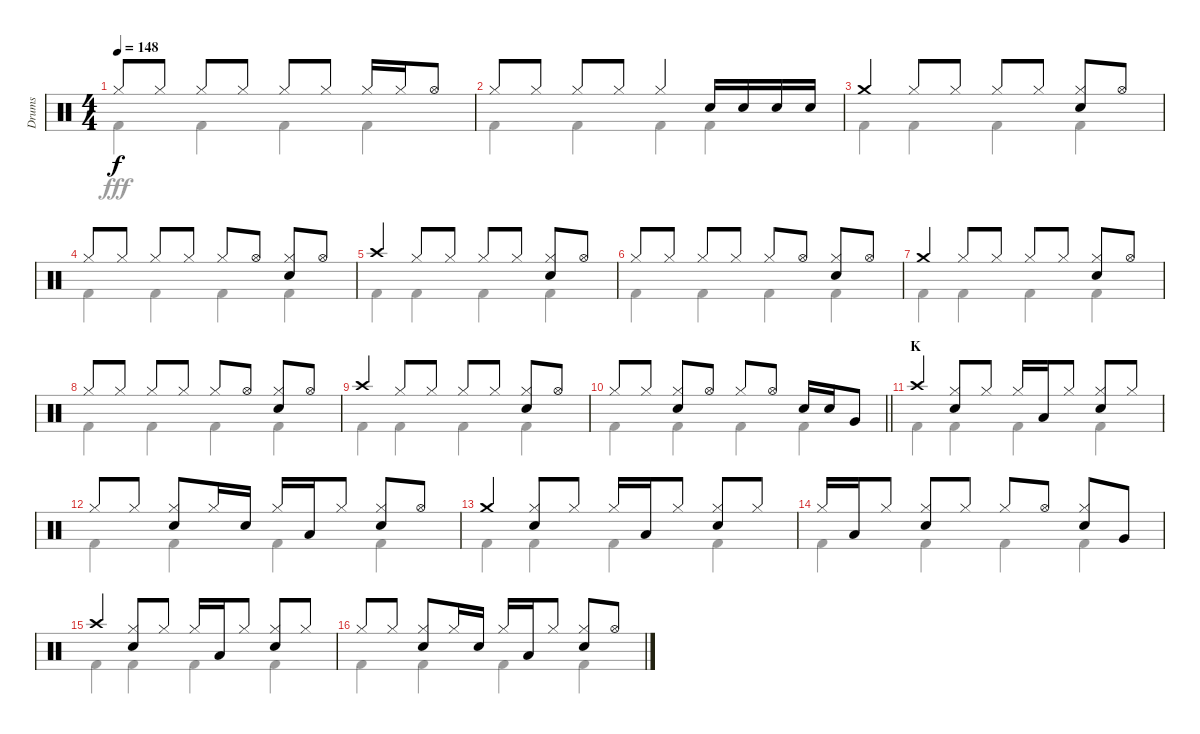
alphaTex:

\track ("Drums" "Drums") {instrument percussion}
\staff {score}
\articulation defaults
\voice
\ts (4 4)
\tempo 148
\clef neutral
\ks c "Hi-Hat (closed)".8{dy f} "Hi-Hat (closed)".8 "Hi-Hat (closed)".8 "Hi-Hat (closed)".8 "Hi-Hat (closed)".8 "Hi-Hat (closed)".8 "Hi-Hat (closed)".16 "Hi-Hat (closed)".16 "Hi-Hat (open)".8
|
"Hi-Hat (closed)".8 "Hi-Hat (closed)".8 "Hi-Hat (closed)".8 "Hi-Hat (closed)".8 "Hi-Hat (closed)".4 "Snare (hit) 2".16 "Snare (hit) 2".16 "Snare (hit) 2".16 "Snare (hit) 2".16 |
"Crash medium (hit)".4 "Hi-Hat (closed)".8 "Hi-Hat (closed)".8 "Hi-Hat (closed)".8 "Hi-Hat (closed)".8 ("Hi-Hat (closed)" "Snare (hit) 2").8 "Hi-Hat (open)".8 |
"Hi-Hat (closed)".8 "Hi-Hat (closed)".8 "Hi-Hat (closed)".8 "Hi-Hat (closed)".8 "Hi-Hat (closed)".8 "Hi-Hat (open)".8 ("Hi-Hat (closed)" "Snare (hit) 2").8 "Hi-Hat (open)".8 |
"Crash high (hit)".4 "Hi-Hat (closed)".8 "Hi-Hat (closed)".8 "Hi-Hat (closed)".8 "Hi-Hat (closed)".8 ("Hi-Hat (closed)" "Snare (hit) 2").8 "Hi-Hat (open)".8 |
"Hi-Hat (closed)".8 "Hi-Hat (closed)".8 "Hi-Hat (closed)".8 "Hi-Hat (closed)".8 "Hi-Hat (closed)".8 "Hi-Hat (open)".8 ("Hi-Hat (closed)" "Snare (hit) 2").8 "Hi-Hat (open)".8 |
"Crash medium (hit)".4 "Hi-Hat (closed)".8 "Hi-Hat (closed)".8 "Hi-Hat (closed)".8 "Hi-Hat (closed)".8 ("Hi-Hat (closed)" "Snare (hit) 2").8 "Hi-Hat (open)".8 |
"Hi-Hat (closed)".8 "Hi-Hat (closed)".8 "Hi-Hat (closed)".8 "Hi-Hat (closed)".8 "Hi-Hat (closed)".8 "Hi-Hat (open)".8 ("Hi-Hat (closed)" "Snare (hit) 2").8 "Hi-Hat (open)".8 |
"Crash high (hit)".4 "Hi-Hat (closed)".8 "Hi-Hat (closed)".8 "Hi-Hat (closed)".8 "Hi-Hat (closed)".8 ("Hi-Hat (closed)" "Snare (hit) 2").8 "Hi-Hat (open)".8 |
\barLineRight lightlight "Hi-Hat (closed)".8 "Hi-Hat (closed)".8
("Hi-Hat (closed)" "Snare (hit) 2").8 "Hi-Hat (open)".8 "Hi-Hat (closed)".8 "Hi-Hat (open)".8 "Snare (hit) 2".16 "Snare (hit) 2".16 "Very Low Tom (hit)".8 |
\section ("" "K")
"Crash high (hit)".4 ("Hi-Hat (closed)" "Snare (hit) 2").8 "Hi-Hat (closed)".8 "Hi-Hat (closed)".16 "Low Tom (hit)".16 "Hi-Hat (closed)".8 ("Hi-Hat (closed)" "Snare (hit) 2").8 "Hi-Hat (closed)".8 |
"Hi-Hat (closed)".8 "Hi-Hat (closed)".8 ("Hi-Hat (closed)" "Snare (hit) 2").8 "Hi-Hat (closed)".16 "Snare (hit) 2".16 "Hi-Hat (closed)".16 "Low Tom (hit)".16 "Hi-Hat (closed)".8 ("Hi-Hat (closed)" "Snare (hit) 2").8 "Hi-Hat (open)".8 |
"Crash medium (hit)".4 ("Hi-Hat (closed)" "Snare (hit) 2").8 "Hi-Hat (closed)".8 "Hi-Hat (closed)".16 "Low Tom (hit)".16 "Hi-Hat (closed)".8 ("Hi-Hat (closed)" "Snare (hit) 2").8 "Hi-Hat (closed)".8 |
"Hi-Hat (closed)".16 "Low Tom (hit)".16 "Hi-Hat (closed)".8 ("Hi-Hat (closed)" "Snare (hit) 2").8 "Hi-Hat (closed)".8 "Hi-Hat (closed)".8 "Hi-Hat (open)".8 ("Hi-Hat (closed)" "Snare (hit) 2").8 "Very Low Tom (hit)".8 |
"Crash high (hit)".4 ("Hi-Hat (closed)" "Snare (hit) 2").8 "Hi-Hat (closed)".8 "Hi-Hat (closed)".16 "Low Tom (hit)".16 "Hi-Hat (closed)".8 ("Hi-Hat (closed)" "Snare (hit) 2").8 "Hi-Hat (closed)".8 |
"Hi-Hat (closed)".8 "Hi-Hat (closed)".8 ("Hi-Hat (closed)" "Snare (hit) 2").8 "Hi-Hat (closed)".16 "Snare (hit) 2".16 "Hi-Hat (closed)".16 "Low Tom (hit)".16 "Hi-Hat (closed)".8 ("Hi-Hat (closed)" "Snare (hit) 2").8 "Hi-Hat (open)".8
\voice
\clef neutral
\ottava regular
\simile none
\ks c "Kick (hit) 2".4{dy fff} "Kick (hit) 2".4 "Kick (hit) 2".4 "Kick (hit) 2".4
|
"Kick (hit) 2".4 "Kick (hit) 2".4 "Kick (hit) 2".4 "Kick (hit) 2".4 |
"Kick (hit) 2".4 "Kick (hit) 2".4 "Kick (hit) 2".4 "Kick (hit) 2".4 |
"Kick (hit) 2".4 "Kick (hit) 2".4 "Kick (hit) 2".4 "Kick (hit) 2".4 |
"Kick (hit) 2".4 "Kick (hit) 2".4 "Kick (hit) 2".4 "Kick (hit) 2".4 |
"Kick (hit) 2".4 "Kick (hit) 2".4 "Kick (hit) 2".4 "Kick (hit) 2".4 |
"Kick (hit) 2".4 "Kick (hit) 2".4 "Kick (hit) 2".4 "Kick (hit) 2".4 |
"Kick (hit) 2".4 "Kick (hit) 2".4 "Kick (hit) 2".4 "Kick (hit) 2".4 |
"Kick (hit) 2".4 "Kick (hit) 2".4 "Kick (hit) 2".4 "Kick (hit) 2".4 |
\barLineRight lightlight "Kick (hit) 2".4 "Kick (hit) 2".4 "Kick (hit) 2".4 "Kick (hit) 2".4
|
"Kick (hit) 2".4 "Kick (hit) 2".4 "Kick (hit) 2".4 "Kick (hit) 2".4 |
"Kick (hit) 2".4 "Kick (hit) 2".4 "Kick (hit) 2".4 "Kick (hit) 2".4 |
"Kick (hit) 2".4 "Kick (hit) 2".4 "Kick (hit) 2".4 "Kick (hit) 2".4 |
"Kick (hit) 2".4 "Kick (hit) 2".4 "Kick (hit) 2".4 "Kick (hit) 2".4 |
"Kick (hit) 2".4 "Kick (hit) 2".4 "Kick (hit) 2".4 "Kick (hit) 2".4 |
"Kick (hit) 2".4 "Kick (hit) 2".4 "Kick (hit) 2".4 "Kick (hit) 2".4
